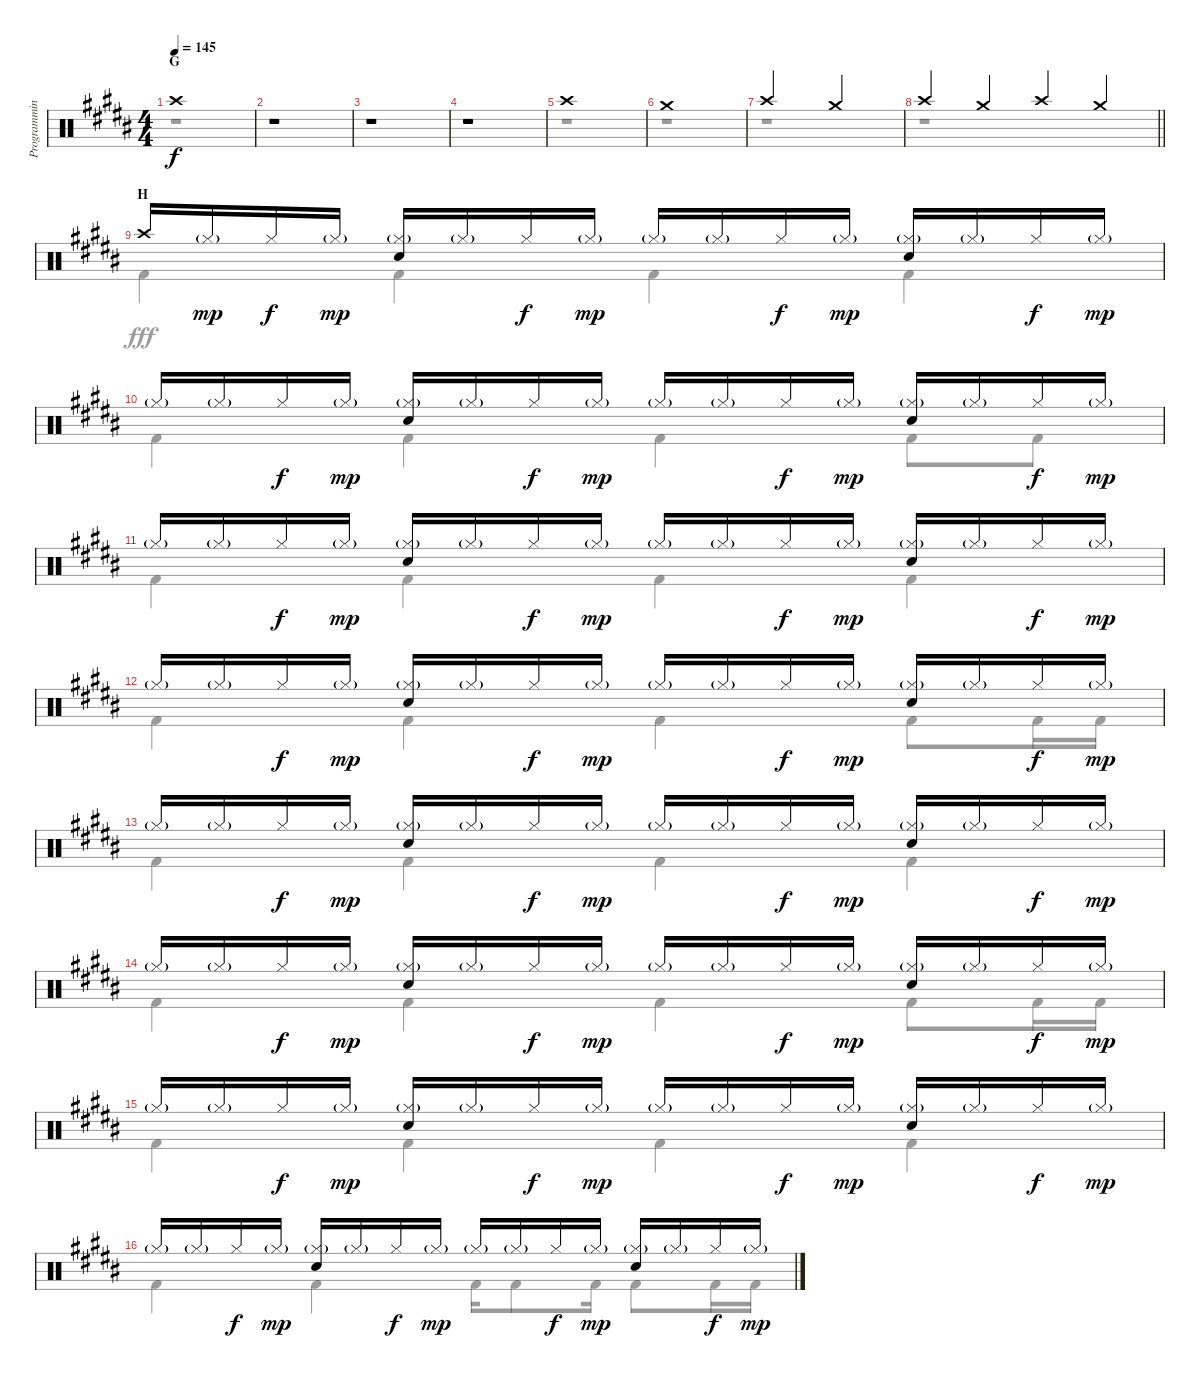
\track ("Programming Drums I" "Programmin") {instrument percussion}
\staff {score}
\articulation defaults
\voice
\ts (4 4)
\section ("" "G")
\tempo 145
\clef neutral
\ks b "Crash high (hit)".1{dy f}
|
r.1 |
r.1 |
r.1 |
"Crash high (hit)".1 |
"Crash medium (hit)".1 |
"Crash high (hit)".2 "Crash medium (hit)".2 |
\barLineRight lightlight "Crash high (hit)".4 "Crash medium (hit)".4 "Crash high (hit)".4 "Crash medium (hit)".4
|
\section ("" "H")
"Crash high (hit)".16 "Hi-Hat (closed)"{g}.16{dy mp} "Hi-Hat (closed)".16{dy f} "Hi-Hat (closed)"{g}.16{dy mp} ("Hi-Hat (closed)"{g} "Snare (hit) 2").16 "Hi-Hat (closed)"{g}.16 "Hi-Hat (closed)".16{dy f} "Hi-Hat (closed)"{g}.16{dy mp} "Hi-Hat (closed)"{g}.16 "Hi-Hat (closed)"{g}.16 "Hi-Hat (closed)".16{dy f} "Hi-Hat (closed)"{g}.16{dy mp} ("Hi-Hat (closed)"{g} "Snare (hit) 2").16 "Hi-Hat (closed)"{g}.16 "Hi-Hat (closed)".16{dy f} "Hi-Hat (closed)"{g}.16{dy mp} |
"Hi-Hat (closed)"{g}.16 "Hi-Hat (closed)"{g}.16 "Hi-Hat (closed)".16{dy f} "Hi-Hat (closed)"{g}.16{dy mp} ("Hi-Hat (closed)"{g} "Snare (hit) 2").16 "Hi-Hat (closed)"{g}.16 "Hi-Hat (closed)".16{dy f} "Hi-Hat (closed)"{g}.16{dy mp} "Hi-Hat (closed)"{g}.16 "Hi-Hat (closed)"{g}.16 "Hi-Hat (closed)".16{dy f} "Hi-Hat (closed)"{g}.16{dy mp} ("Hi-Hat (closed)"{g} "Snare (hit) 2").16 "Hi-Hat (closed)"{g}.16 "Hi-Hat (closed)".16{dy f} "Hi-Hat (closed)"{g}.16{dy mp} |
"Hi-Hat (closed)"{g}.16 "Hi-Hat (closed)"{g}.16 "Hi-Hat (closed)".16{dy f} "Hi-Hat (closed)"{g}.16{dy mp} ("Hi-Hat (closed)"{g} "Snare (hit) 2").16 "Hi-Hat (closed)"{g}.16 "Hi-Hat (closed)".16{dy f} "Hi-Hat (closed)"{g}.16{dy mp} "Hi-Hat (closed)"{g}.16 "Hi-Hat (closed)"{g}.16 "Hi-Hat (closed)".16{dy f} "Hi-Hat (closed)"{g}.16{dy mp} ("Hi-Hat (closed)"{g} "Snare (hit) 2").16 "Hi-Hat (closed)"{g}.16 "Hi-Hat (closed)".16{dy f} "Hi-Hat (closed)"{g}.16{dy mp} |
"Hi-Hat (closed)"{g}.16 "Hi-Hat (closed)"{g}.16 "Hi-Hat (closed)".16{dy f} "Hi-Hat (closed)"{g}.16{dy mp} ("Hi-Hat (closed)"{g} "Snare (hit) 2").16 "Hi-Hat (closed)"{g}.16 "Hi-Hat (closed)".16{dy f} "Hi-Hat (closed)"{g}.16{dy mp} "Hi-Hat (closed)"{g}.16 "Hi-Hat (closed)"{g}.16 "Hi-Hat (closed)".16{dy f} "Hi-Hat (closed)"{g}.16{dy mp} ("Hi-Hat (closed)"{g} "Snare (hit) 2").16 "Hi-Hat (closed)"{g}.16 "Hi-Hat (closed)".16{dy f} "Hi-Hat (closed)"{g}.16{dy mp} |
"Hi-Hat (closed)"{g}.16 "Hi-Hat (closed)"{g}.16 "Hi-Hat (closed)".16{dy f} "Hi-Hat (closed)"{g}.16{dy mp} ("Hi-Hat (closed)"{g} "Snare (hit) 2").16 "Hi-Hat (closed)"{g}.16 "Hi-Hat (closed)".16{dy f} "Hi-Hat (closed)"{g}.16{dy mp} "Hi-Hat (closed)"{g}.16 "Hi-Hat (closed)"{g}.16 "Hi-Hat (closed)".16{dy f} "Hi-Hat (closed)"{g}.16{dy mp} ("Hi-Hat (closed)"{g} "Snare (hit) 2").16 "Hi-Hat (closed)"{g}.16 "Hi-Hat (closed)".16{dy f} "Hi-Hat (closed)"{g}.16{dy mp} |
"Hi-Hat (closed)"{g}.16 "Hi-Hat (closed)"{g}.16 "Hi-Hat (closed)".16{dy f} "Hi-Hat (closed)"{g}.16{dy mp} ("Hi-Hat (closed)"{g} "Snare (hit) 2").16 "Hi-Hat (closed)"{g}.16 "Hi-Hat (closed)".16{dy f} "Hi-Hat (closed)"{g}.16{dy mp} "Hi-Hat (closed)"{g}.16 "Hi-Hat (closed)"{g}.16 "Hi-Hat (closed)".16{dy f} "Hi-Hat (closed)"{g}.16{dy mp} ("Hi-Hat (closed)"{g} "Snare (hit) 2").16 "Hi-Hat (closed)"{g}.16 "Hi-Hat (closed)".16{dy f} "Hi-Hat (closed)"{g}.16{dy mp} |
"Hi-Hat (closed)"{g}.16 "Hi-Hat (closed)"{g}.16 "Hi-Hat (closed)".16{dy f} "Hi-Hat (closed)"{g}.16{dy mp} ("Hi-Hat (closed)"{g} "Snare (hit) 2").16 "Hi-Hat (closed)"{g}.16 "Hi-Hat (closed)".16{dy f} "Hi-Hat (closed)"{g}.16{dy mp} "Hi-Hat (closed)"{g}.16 "Hi-Hat (closed)"{g}.16 "Hi-Hat (closed)".16{dy f} "Hi-Hat (closed)"{g}.16{dy mp} ("Hi-Hat (closed)"{g} "Snare (hit) 2").16 "Hi-Hat (closed)"{g}.16 "Hi-Hat (closed)".16{dy f} "Hi-Hat (closed)"{g}.16{dy mp} |
"Hi-Hat (closed)"{g}.16 "Hi-Hat (closed)"{g}.16 "Hi-Hat (closed)".16{dy f} "Hi-Hat (closed)"{g}.16{dy mp} ("Hi-Hat (closed)"{g} "Snare (hit) 2").16 "Hi-Hat (closed)"{g}.16 "Hi-Hat (closed)".16{dy f} "Hi-Hat (closed)"{g}.16{dy mp} "Hi-Hat (closed)"{g}.16 "Hi-Hat (closed)"{g}.16 "Hi-Hat (closed)".16{dy f} "Hi-Hat (closed)"{g}.16{dy mp} ("Hi-Hat (closed)"{g} "Snare (hit) 2").16 "Hi-Hat (closed)"{g}.16 "Hi-Hat (closed)".16{dy f} "Hi-Hat (closed)"{g}.16{dy mp}
\voice
\clef neutral
\ottava regular
\simile none
\ks b
r.1{dy fff} |
r.1 |
r.1 |
r.1 |
r.1 |
r.1 |
r.1 |
\barLineRight lightlight
r.1 |
"Kick (hit) 2".4 "Kick (hit) 2".4 "Kick (hit) 2".4 "Kick (hit) 2".4 |
"Kick (hit) 2".4 "Kick (hit) 2".4 "Kick (hit) 2".4 "Kick (hit) 2".8 "Kick (hit) 2".8 |
"Kick (hit) 2".4 "Kick (hit) 2".4 "Kick (hit) 2".4 "Kick (hit) 2".4 |
"Kick (hit) 2".4 "Kick (hit) 2".4 "Kick (hit) 2".4 "Kick (hit) 2".8 "Kick (hit) 2".16 "Kick (hit) 2".16 |
"Kick (hit) 2".4 "Kick (hit) 2".4 "Kick (hit) 2".4 "Kick (hit) 2".4 |
"Kick (hit) 2".4 "Kick (hit) 2".4 "Kick (hit) 2".4 "Kick (hit) 2".8 "Kick (hit) 2".16 "Kick (hit) 2".16 |
"Kick (hit) 2".4 "Kick (hit) 2".4 "Kick (hit) 2".4 "Kick (hit) 2".4 |
"Kick (hit) 2".4 "Kick (hit) 2".4 "Kick (hit) 2".16 "Kick (hit) 2".8 "Kick (hit) 2".16 "Kick (hit) 2".8 "Kick (hit) 2".16 "Kick (hit) 2".16
